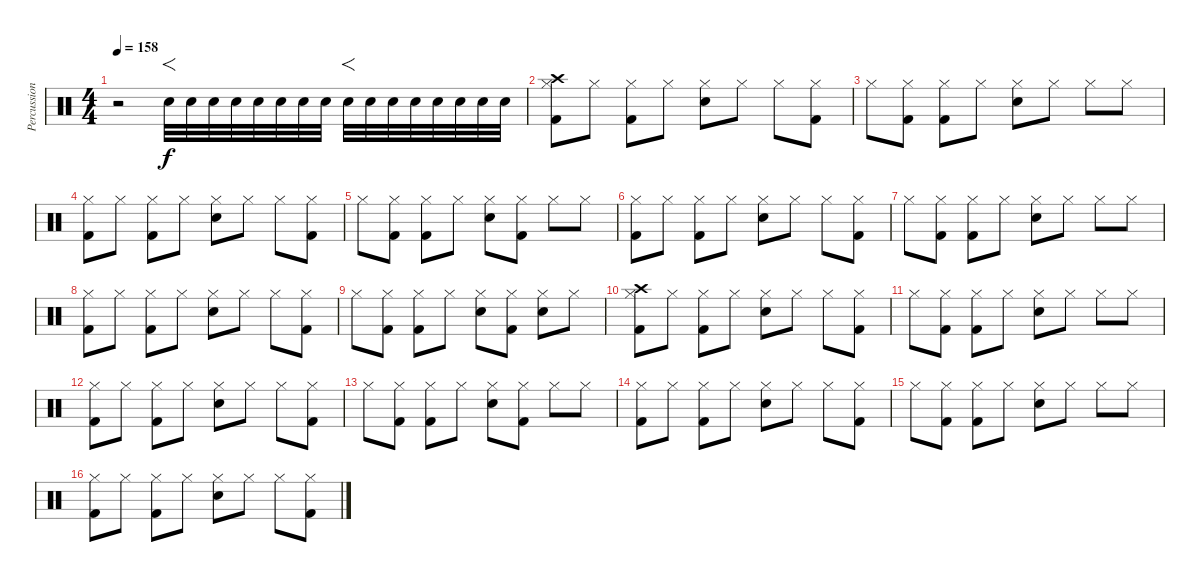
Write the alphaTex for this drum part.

\track ("Percussion" "Percussion") {instrument percussion}
\staff {score}
\articulation defaults
\ts (4 4)
\tempo 158
\clef neutral
\ks c
r.2{dy f} "Electric Snare (hit)".32{f volume 4} "Electric Snare (hit)".32 "Electric Snare (hit)".32{volume 7} "Electric Snare (hit)".32 "Electric Snare (hit)".32 "Electric Snare (hit)".32{volume 9} "Electric Snare (hit)".32 "Electric Snare (hit)".32{volume 12} "Electric Snare (hit)".32{f} "Electric Snare (hit)".32 "Electric Snare (hit)".32 "Electric Snare (hit)".32 "Electric Snare (hit)".32 "Electric Snare (hit)".32 "Electric Snare (hit)".32 "Electric Snare (hit)".32 |
("Hi-Hat (closed)" "Kick (hit) 2" "Crash high (hit)").8 "Hi-Hat (closed)".8 ("Hi-Hat (closed)" "Kick (hit) 2").8 "Hi-Hat (closed)".8 ("Hi-Hat (closed)" "Electric Snare (hit)").8 "Hi-Hat (closed)".8 "Hi-Hat (closed)".8 ("Hi-Hat (closed)" "Kick (hit) 2").8 |
"Hi-Hat (closed)".8 ("Hi-Hat (closed)" "Kick (hit) 2").8 ("Hi-Hat (closed)" "Kick (hit) 2").8 "Hi-Hat (closed)".8 ("Hi-Hat (closed)" "Electric Snare (hit)").8 "Hi-Hat (closed)".8 "Hi-Hat (closed)".8 "Hi-Hat (closed)".8 |
("Hi-Hat (closed)" "Kick (hit) 2").8 "Hi-Hat (closed)".8 ("Hi-Hat (closed)" "Kick (hit) 2").8 "Hi-Hat (closed)".8 ("Hi-Hat (closed)" "Electric Snare (hit)").8 "Hi-Hat (closed)".8 "Hi-Hat (closed)".8 ("Hi-Hat (closed)" "Kick (hit) 2").8 |
"Hi-Hat (closed)".8 ("Hi-Hat (closed)" "Kick (hit) 2").8 ("Hi-Hat (closed)" "Kick (hit) 2").8 "Hi-Hat (closed)".8 ("Hi-Hat (closed)" "Electric Snare (hit)").8 ("Hi-Hat (closed)" "Kick (hit) 2").8 "Hi-Hat (closed)".8 "Hi-Hat (closed)".8 |
("Hi-Hat (closed)" "Kick (hit) 2").8 "Hi-Hat (closed)".8 ("Hi-Hat (closed)" "Kick (hit) 2").8 "Hi-Hat (closed)".8 ("Hi-Hat (closed)" "Electric Snare (hit)").8 "Hi-Hat (closed)".8 "Hi-Hat (closed)".8 ("Hi-Hat (closed)" "Kick (hit) 2").8 |
"Hi-Hat (closed)".8 ("Hi-Hat (closed)" "Kick (hit) 2").8 ("Hi-Hat (closed)" "Kick (hit) 2").8 "Hi-Hat (closed)".8 ("Hi-Hat (closed)" "Electric Snare (hit)").8 "Hi-Hat (closed)".8 "Hi-Hat (closed)".8 "Hi-Hat (closed)".8 |
("Hi-Hat (closed)" "Kick (hit) 2").8 "Hi-Hat (closed)".8 ("Hi-Hat (closed)" "Kick (hit) 2").8 "Hi-Hat (closed)".8 ("Hi-Hat (closed)" "Snare (hit) 2").8 "Hi-Hat (closed)".8 "Hi-Hat (closed)".8 ("Hi-Hat (closed)" "Kick (hit) 2").8 |
"Hi-Hat (closed)".8 ("Hi-Hat (closed)" "Kick (hit) 2").8 ("Hi-Hat (closed)" "Kick (hit) 2").8 "Hi-Hat (closed)".8 ("Hi-Hat (closed)" "Electric Snare (hit)").8 ("Hi-Hat (closed)" "Kick (hit) 2").8 ("Hi-Hat (closed)" "Electric Snare (hit)").8 "Hi-Hat (closed)".8 |
("Hi-Hat (closed)" "Kick (hit) 2" "Crash high (hit)").8 "Hi-Hat (closed)".8 ("Hi-Hat (closed)" "Kick (hit) 2").8 "Hi-Hat (closed)".8 ("Hi-Hat (closed)" "Electric Snare (hit)").8 "Hi-Hat (closed)".8 "Hi-Hat (closed)".8 ("Hi-Hat (closed)" "Kick (hit) 2").8 |
"Hi-Hat (closed)".8 ("Hi-Hat (closed)" "Kick (hit) 2").8 ("Hi-Hat (closed)" "Kick (hit) 2").8 "Hi-Hat (closed)".8 ("Hi-Hat (closed)" "Electric Snare (hit)").8 "Hi-Hat (closed)".8 "Hi-Hat (closed)".8 "Hi-Hat (closed)".8 |
("Hi-Hat (closed)" "Kick (hit) 2").8 "Hi-Hat (closed)".8 ("Hi-Hat (closed)" "Kick (hit) 2").8 "Hi-Hat (closed)".8 ("Hi-Hat (closed)" "Electric Snare (hit)").8 "Hi-Hat (closed)".8 "Hi-Hat (closed)".8 ("Hi-Hat (closed)" "Kick (hit) 2").8 |
"Hi-Hat (closed)".8 ("Hi-Hat (closed)" "Kick (hit) 2").8 ("Hi-Hat (closed)" "Kick (hit) 2").8 "Hi-Hat (closed)".8 ("Hi-Hat (closed)" "Electric Snare (hit)").8 ("Hi-Hat (closed)" "Kick (hit) 2").8 "Hi-Hat (closed)".8 "Hi-Hat (closed)".8 |
("Hi-Hat (closed)" "Kick (hit) 2").8 "Hi-Hat (closed)".8 ("Hi-Hat (closed)" "Kick (hit) 2").8 "Hi-Hat (closed)".8 ("Hi-Hat (closed)" "Electric Snare (hit)").8 "Hi-Hat (closed)".8 "Hi-Hat (closed)".8 ("Hi-Hat (closed)" "Kick (hit) 2").8 |
"Hi-Hat (closed)".8 ("Hi-Hat (closed)" "Kick (hit) 2").8 ("Hi-Hat (closed)" "Kick (hit) 2").8 "Hi-Hat (closed)".8 ("Hi-Hat (closed)" "Electric Snare (hit)").8 "Hi-Hat (closed)".8 "Hi-Hat (closed)".8 "Hi-Hat (closed)".8 |
("Hi-Hat (closed)" "Kick (hit) 2").8 "Hi-Hat (closed)".8 ("Hi-Hat (closed)" "Kick (hit) 2").8 "Hi-Hat (closed)".8 ("Hi-Hat (closed)" "Snare (hit) 2").8 "Hi-Hat (closed)".8 "Hi-Hat (closed)".8 ("Hi-Hat (closed)" "Kick (hit) 2").8
